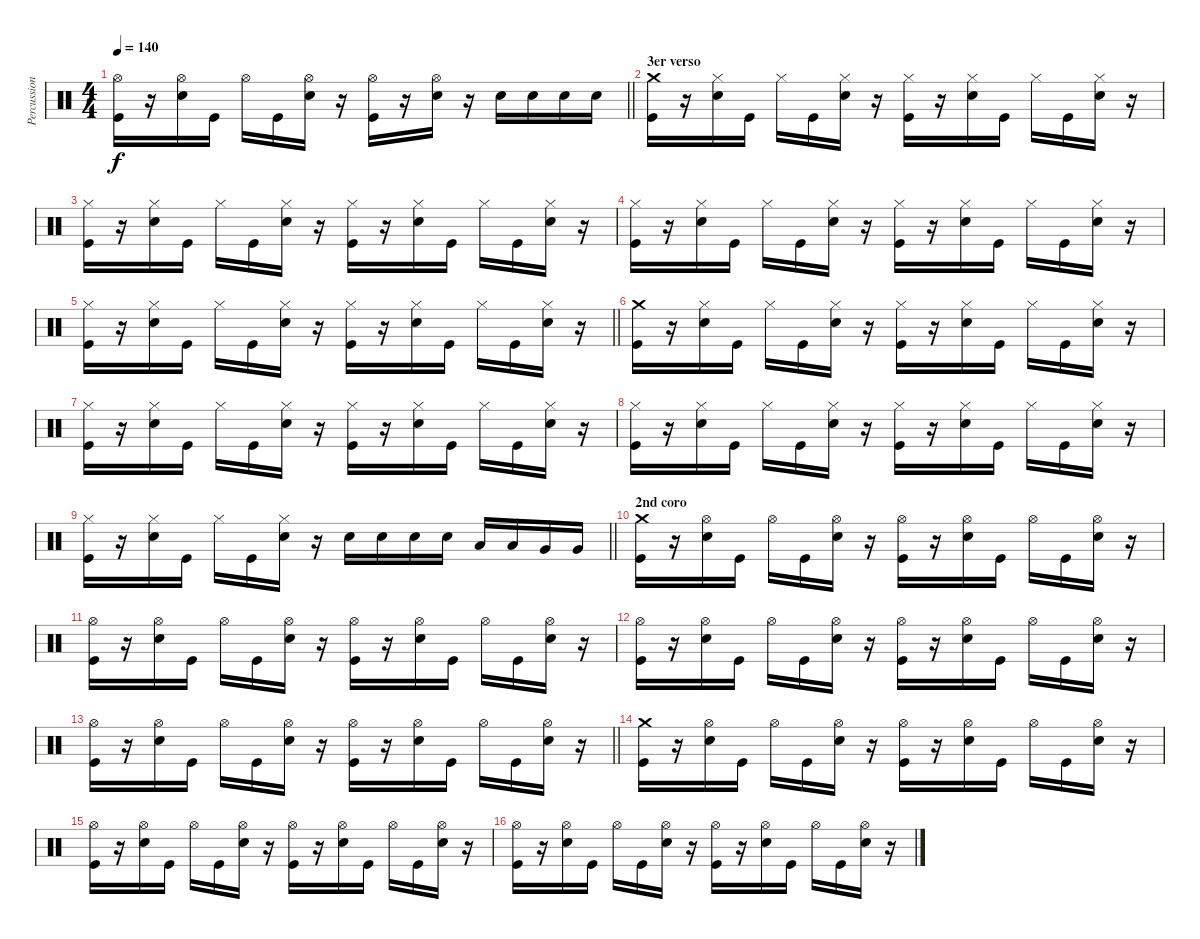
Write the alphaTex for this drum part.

\track ("Percussion" "Percussion") {instrument percussion}
\staff {score}
\articulation defaults
\ts (4 4)
\tempo 140
\clef neutral
\barLineRight lightlight
\ks c
("Hi-Hat (open)" "Kick (hit)").16{dy f} r.16 ("Hi-Hat (open)" "Snare (hit) 2").16 "Kick (hit)".16 "Hi-Hat (open)".16 "Kick (hit)".16 ("Hi-Hat (open)" "Snare (hit) 2").16 r.16 ("Hi-Hat (open)" "Kick (hit)").16 r.16 ("Hi-Hat (open)" "Snare (hit) 2").16 r.16 "Snare (hit) 2".16 "Snare (hit) 2".16 "Snare (hit) 2".16 "Snare (hit) 2".16 |
\section ("" "3er verso")
("Crash medium (hit)" "Kick (hit)").16 r.16 ("Hi-Hat (closed)" "Snare (hit) 2").16 "Kick (hit)".16 "Hi-Hat (closed)".16 "Kick (hit)".16 ("Hi-Hat (closed)" "Snare (hit) 2").16 r.16 ("Hi-Hat (closed)" "Kick (hit)").16 r.16 ("Hi-Hat (closed)" "Snare (hit) 2").16 "Kick (hit)".16 "Hi-Hat (closed)".16 "Kick (hit)".16 ("Hi-Hat (closed)" "Snare (hit) 2").16 r.16 |
("Hi-Hat (closed)" "Kick (hit)").16 r.16 ("Hi-Hat (closed)" "Snare (hit) 2").16 "Kick (hit)".16 "Hi-Hat (closed)".16 "Kick (hit)".16 ("Hi-Hat (closed)" "Snare (hit) 2").16 r.16 ("Hi-Hat (closed)" "Kick (hit)").16 r.16 ("Hi-Hat (closed)" "Snare (hit) 2").16 "Kick (hit)".16 "Hi-Hat (closed)".16 "Kick (hit)".16 ("Hi-Hat (closed)" "Snare (hit) 2").16 r.16 |
("Hi-Hat (closed)" "Kick (hit)").16 r.16 ("Hi-Hat (closed)" "Snare (hit) 2").16 "Kick (hit)".16 "Hi-Hat (closed)".16 "Kick (hit)".16 ("Hi-Hat (closed)" "Snare (hit) 2").16 r.16 ("Hi-Hat (closed)" "Kick (hit)").16 r.16 ("Hi-Hat (closed)" "Snare (hit) 2").16 "Kick (hit)".16 "Hi-Hat (closed)".16 "Kick (hit)".16 ("Hi-Hat (closed)" "Snare (hit) 2").16 r.16 |
\barLineRight lightlight
("Hi-Hat (closed)" "Kick (hit)").16 r.16 ("Hi-Hat (closed)" "Snare (hit) 2").16 "Kick (hit)".16 "Hi-Hat (closed)".16 "Kick (hit)".16 ("Hi-Hat (closed)" "Snare (hit) 2").16 r.16 ("Hi-Hat (closed)" "Kick (hit)").16 r.16 ("Hi-Hat (closed)" "Snare (hit) 2").16 "Kick (hit)".16 "Hi-Hat (closed)".16 "Kick (hit)".16 ("Hi-Hat (closed)" "Snare (hit) 2").16 r.16 |
("Crash medium (hit)" "Kick (hit)").16 r.16 ("Hi-Hat (closed)" "Snare (hit) 2").16 "Kick (hit)".16 "Hi-Hat (closed)".16 "Kick (hit)".16 ("Hi-Hat (closed)" "Snare (hit) 2").16 r.16 ("Hi-Hat (closed)" "Kick (hit)").16 r.16 ("Hi-Hat (closed)" "Snare (hit) 2").16 "Kick (hit)".16 "Hi-Hat (closed)".16 "Kick (hit)".16 ("Hi-Hat (closed)" "Snare (hit) 2").16 r.16 |
("Hi-Hat (closed)" "Kick (hit)").16 r.16 ("Hi-Hat (closed)" "Snare (hit) 2").16 "Kick (hit)".16 "Hi-Hat (closed)".16 "Kick (hit)".16 ("Hi-Hat (closed)" "Snare (hit) 2").16 r.16 ("Hi-Hat (closed)" "Kick (hit)").16 r.16 ("Hi-Hat (closed)" "Snare (hit) 2").16 "Kick (hit)".16 "Hi-Hat (closed)".16 "Kick (hit)".16 ("Hi-Hat (closed)" "Snare (hit) 2").16 r.16 |
("Hi-Hat (closed)" "Kick (hit)").16 r.16 ("Hi-Hat (closed)" "Snare (hit) 2").16 "Kick (hit)".16 "Hi-Hat (closed)".16 "Kick (hit)".16 ("Hi-Hat (closed)" "Snare (hit) 2").16 r.16 ("Hi-Hat (closed)" "Kick (hit)").16 r.16 ("Hi-Hat (closed)" "Snare (hit) 2").16 "Kick (hit)".16 "Hi-Hat (closed)".16 "Kick (hit)".16 ("Hi-Hat (closed)" "Snare (hit) 2").16 r.16 |
\barLineRight lightlight
("Hi-Hat (closed)" "Kick (hit)").16 r.16 ("Hi-Hat (closed)" "Snare (hit) 2").16 "Kick (hit)".16 "Hi-Hat (closed)".16 "Kick (hit)".16 ("Hi-Hat (closed)" "Snare (hit) 2").16 r.16 "Snare (hit) 2".16 "Snare (hit) 2".16 "Snare (hit) 2".16 "Snare (hit) 2".16 "Low Tom (hit)".16 "Low Tom (hit)".16 "Very Low Tom (hit)".16 "Very Low Tom (hit)".16 |
\section ("" "2nd coro")
("Crash medium (hit)" "Kick (hit)").16 r.16 ("Hi-Hat (open)" "Snare (hit) 2").16 "Kick (hit)".16 "Hi-Hat (open)".16 "Kick (hit)".16 ("Hi-Hat (open)" "Snare (hit) 2").16 r.16 ("Hi-Hat (open)" "Kick (hit)").16 r.16 ("Hi-Hat (open)" "Snare (hit) 2").16 "Kick (hit)".16 "Hi-Hat (open)".16 "Kick (hit)".16 ("Hi-Hat (open)" "Snare (hit) 2").16 r.16 |
("Hi-Hat (open)" "Kick (hit)").16 r.16 ("Hi-Hat (open)" "Snare (hit) 2").16 "Kick (hit)".16 "Hi-Hat (open)".16 "Kick (hit)".16 ("Hi-Hat (open)" "Snare (hit) 2").16 r.16 ("Hi-Hat (open)" "Kick (hit)").16 r.16 ("Hi-Hat (open)" "Snare (hit) 2").16 "Kick (hit)".16 "Hi-Hat (open)".16 "Kick (hit)".16 ("Hi-Hat (open)" "Snare (hit) 2").16 r.16 |
("Hi-Hat (open)" "Kick (hit)").16 r.16 ("Hi-Hat (open)" "Snare (hit) 2").16 "Kick (hit)".16 "Hi-Hat (open)".16 "Kick (hit)".16 ("Hi-Hat (open)" "Snare (hit) 2").16 r.16 ("Hi-Hat (open)" "Kick (hit)").16 r.16 ("Hi-Hat (open)" "Snare (hit) 2").16 "Kick (hit)".16 "Hi-Hat (open)".16 "Kick (hit)".16 ("Hi-Hat (open)" "Snare (hit) 2").16 r.16 |
\barLineRight lightlight
("Hi-Hat (open)" "Kick (hit)").16 r.16 ("Hi-Hat (open)" "Snare (hit) 2").16 "Kick (hit)".16 "Hi-Hat (open)".16 "Kick (hit)".16 ("Hi-Hat (open)" "Snare (hit) 2").16 r.16 ("Hi-Hat (open)" "Kick (hit)").16 r.16 ("Hi-Hat (open)" "Snare (hit) 2").16 "Kick (hit)".16 "Hi-Hat (open)".16 "Kick (hit)".16 ("Hi-Hat (open)" "Snare (hit) 2").16 r.16 |
("Crash medium (hit)" "Kick (hit)").16 r.16 ("Hi-Hat (open)" "Snare (hit) 2").16 "Kick (hit)".16 "Hi-Hat (open)".16 "Kick (hit)".16 ("Hi-Hat (open)" "Snare (hit) 2").16 r.16 ("Hi-Hat (open)" "Kick (hit)").16 r.16 ("Hi-Hat (open)" "Snare (hit) 2").16 "Kick (hit)".16 "Hi-Hat (open)".16 "Kick (hit)".16 ("Hi-Hat (open)" "Snare (hit) 2").16 r.16 |
("Hi-Hat (open)" "Kick (hit)").16 r.16 ("Hi-Hat (open)" "Snare (hit) 2").16 "Kick (hit)".16 "Hi-Hat (open)".16 "Kick (hit)".16 ("Hi-Hat (open)" "Snare (hit) 2").16 r.16 ("Hi-Hat (open)" "Kick (hit)").16 r.16 ("Hi-Hat (open)" "Snare (hit) 2").16 "Kick (hit)".16 "Hi-Hat (open)".16 "Kick (hit)".16 ("Hi-Hat (open)" "Snare (hit) 2").16 r.16 |
("Hi-Hat (open)" "Kick (hit)").16 r.16 ("Hi-Hat (open)" "Snare (hit) 2").16 "Kick (hit)".16 "Hi-Hat (open)".16 "Kick (hit)".16 ("Hi-Hat (open)" "Snare (hit) 2").16 r.16 ("Hi-Hat (open)" "Kick (hit)").16 r.16 ("Hi-Hat (open)" "Snare (hit) 2").16 "Kick (hit)".16 "Hi-Hat (open)".16 "Kick (hit)".16 ("Hi-Hat (open)" "Snare (hit) 2").16 r.16
